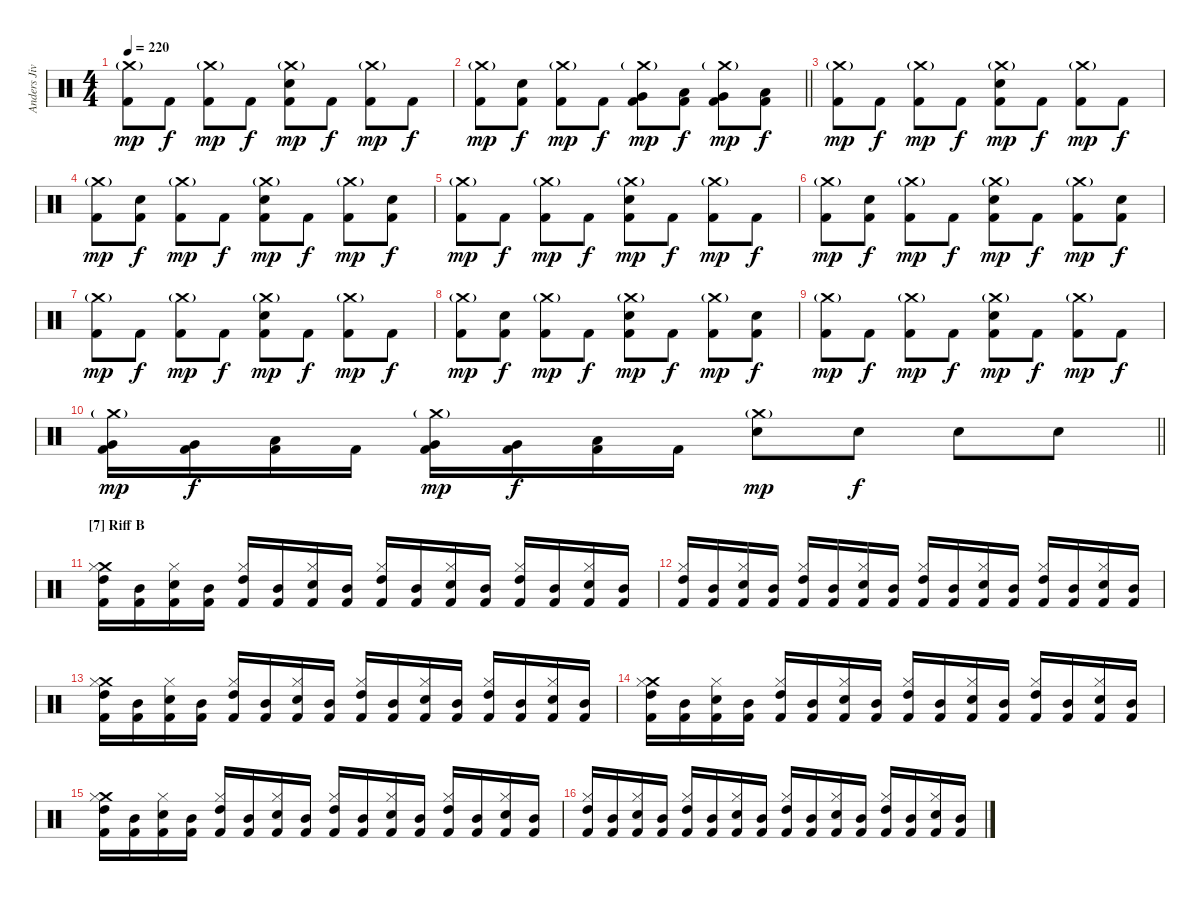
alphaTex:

\track ("Anders Jivarp" "Anders Jiv") {instrument percussion}
\staff {score}
\articulation defaults
\ts (4 4)
\tempo 220
\clef neutral
\ks c
("Crash medium (hit)"{g} "Kick (hit) 2").8{dy mp} "Kick (hit) 2".8{dy f} ("Crash medium (hit)"{g} "Kick (hit) 2").8{dy mp} "Kick (hit) 2".8{dy f} ("Crash medium (hit)"{g} "Snare (hit) 2" "Kick (hit) 2").8{dy mp} "Kick (hit) 2".8{dy f} ("Crash medium (hit)"{g} "Kick (hit) 2").8{dy mp} "Kick (hit) 2".8{dy f} |
\barLineRight lightlight
("Crash medium (hit)"{g} "Kick (hit) 2").8{dy mp} ("Snare (hit) 2" "Kick (hit) 2").8{dy f} ("Crash medium (hit)"{g} "Kick (hit) 2").8{dy mp} "Kick (hit) 2".8{dy f} ("Crash medium (hit)"{g} "Very Low Tom (hit)" "Kick (hit) 2").8{dy mp} ("Low Floor Tom (hit)" "Kick (hit) 2").8{dy f} ("Crash medium (hit)"{g} "Very Low Tom (hit)" "Kick (hit) 2").8{dy mp} ("Low Tom (hit)" "Kick (hit) 2").8{dy f} |
("Crash medium (hit)"{g} "Kick (hit) 2").8{dy mp} "Kick (hit) 2".8{dy f} ("Crash medium (hit)"{g} "Kick (hit) 2").8{dy mp} "Kick (hit) 2".8{dy f} ("Crash medium (hit)"{g} "Snare (hit) 2" "Kick (hit) 2").8{dy mp} "Kick (hit) 2".8{dy f} ("Crash medium (hit)"{g} "Kick (hit) 2").8{dy mp} "Kick (hit) 2".8{dy f} |
("Crash medium (hit)"{g} "Kick (hit) 2").8{dy mp} ("Snare (hit) 2" "Kick (hit) 2").8{dy f} ("Crash medium (hit)"{g} "Kick (hit) 2").8{dy mp} "Kick (hit) 2".8{dy f} ("Crash medium (hit)"{g} "Snare (hit) 2" "Kick (hit) 2").8{dy mp} "Kick (hit) 2".8{dy f} ("Crash medium (hit)"{g} "Kick (hit) 2").8{dy mp} ("Snare (hit) 2" "Kick (hit) 2").8{dy f} |
("Crash medium (hit)"{g} "Kick (hit) 2").8{dy mp} "Kick (hit) 2".8{dy f} ("Crash medium (hit)"{g} "Kick (hit) 2").8{dy mp} "Kick (hit) 2".8{dy f} ("Crash medium (hit)"{g} "Snare (hit) 2" "Kick (hit) 2").8{dy mp} "Kick (hit) 2".8{dy f} ("Crash medium (hit)"{g} "Kick (hit) 2").8{dy mp} "Kick (hit) 2".8{dy f} |
("Crash medium (hit)"{g} "Kick (hit) 2").8{dy mp} ("Snare (hit) 2" "Kick (hit) 2").8{dy f} ("Crash medium (hit)"{g} "Kick (hit) 2").8{dy mp} "Kick (hit) 2".8{dy f} ("Crash medium (hit)"{g} "Snare (hit) 2" "Kick (hit) 2").8{dy mp} "Kick (hit) 2".8{dy f} ("Crash medium (hit)"{g} "Kick (hit) 2").8{dy mp} ("Snare (hit) 2" "Kick (hit) 2").8{dy f} |
("Crash medium (hit)"{g} "Kick (hit) 2").8{dy mp} "Kick (hit) 2".8{dy f} ("Crash medium (hit)"{g} "Kick (hit) 2").8{dy mp} "Kick (hit) 2".8{dy f} ("Crash medium (hit)"{g} "Snare (hit) 2" "Kick (hit) 2").8{dy mp} "Kick (hit) 2".8{dy f} ("Crash medium (hit)"{g} "Kick (hit) 2").8{dy mp} "Kick (hit) 2".8{dy f} |
("Crash medium (hit)"{g} "Kick (hit) 2").8{dy mp} ("Snare (hit) 2" "Kick (hit) 2").8{dy f} ("Crash medium (hit)"{g} "Kick (hit) 2").8{dy mp} "Kick (hit) 2".8{dy f} ("Crash medium (hit)"{g} "Snare (hit) 2" "Kick (hit) 2").8{dy mp} "Kick (hit) 2".8{dy f} ("Crash medium (hit)"{g} "Kick (hit) 2").8{dy mp} ("Snare (hit) 2" "Kick (hit) 2").8{dy f} |
("Crash medium (hit)"{g} "Kick (hit) 2").8{dy mp} "Kick (hit) 2".8{dy f} ("Crash medium (hit)"{g} "Kick (hit) 2").8{dy mp} "Kick (hit) 2".8{dy f} ("Crash medium (hit)"{g} "Snare (hit) 2" "Kick (hit) 2").8{dy mp} "Kick (hit) 2".8{dy f} ("Crash medium (hit)"{g} "Kick (hit) 2").8{dy mp} "Kick (hit) 2".8{dy f} |
\barLineRight lightlight
("Crash medium (hit)"{g} "Very Low Tom (hit)" "Kick (hit) 2").16{dy mp} ("Very Low Tom (hit)" "Kick (hit) 2").16{dy f} ("Low Floor Tom (hit)" "Kick (hit) 2").16 "Kick (hit) 2".16 ("Crash medium (hit)"{g} "Very Low Tom (hit)" "Kick (hit) 2").16{dy mp} ("Very Low Tom (hit)" "Kick (hit) 2").16{dy f} ("Low Floor Tom (hit)" "Kick (hit) 2").16 "Kick (hit) 2".16 ("Crash medium (hit)"{g} "Snare (hit) 2").8{dy mp} "Snare (hit) 2".8{dy f} "Snare (hit) 2".8 "Snare (hit) 2".8 |
\section ("" "[7] Riff B")
("Crash medium (hit)" "Hi-Hat (closed)" "High Tom (hit)" "Kick (hit) 2").16 ("Mid Tom (hit)" "Kick (hit) 2").16 ("Hi-Hat (closed)" "Electric Snare (hit)" "Kick (hit) 2").16 ("Mid Tom (hit)" "Kick (hit) 2").16 ("Hi-Hat (closed)" "High Tom (hit)" "Kick (hit) 2").16 ("Mid Tom (hit)" "Kick (hit) 2").16 ("Hi-Hat (closed)" "Electric Snare (hit)" "Kick (hit) 2").16 ("Mid Tom (hit)" "Kick (hit) 2").16 ("Hi-Hat (closed)" "High Tom (hit)" "Kick (hit) 2").16 ("Mid Tom (hit)" "Kick (hit) 2").16 ("Hi-Hat (closed)" "Electric Snare (hit)" "Kick (hit) 2").16 ("Mid Tom (hit)" "Kick (hit) 2").16 ("Hi-Hat (closed)" "High Tom (hit)" "Kick (hit) 2").16 ("Mid Tom (hit)" "Kick (hit) 2").16 ("Hi-Hat (closed)" "Electric Snare (hit)" "Kick (hit) 2").16 ("Mid Tom (hit)" "Kick (hit) 2").16 |
("Hi-Hat (closed)" "High Tom (hit)" "Kick (hit) 2").16 ("Mid Tom (hit)" "Kick (hit) 2").16 ("Hi-Hat (closed)" "Electric Snare (hit)" "Kick (hit) 2").16 ("Mid Tom (hit)" "Kick (hit) 2").16 ("Hi-Hat (closed)" "High Tom (hit)" "Kick (hit) 2").16 ("Mid Tom (hit)" "Kick (hit) 2").16 ("Hi-Hat (closed)" "Electric Snare (hit)" "Kick (hit) 2").16 ("Mid Tom (hit)" "Kick (hit) 2").16 ("Hi-Hat (closed)" "High Tom (hit)" "Kick (hit) 2").16 ("Mid Tom (hit)" "Kick (hit) 2").16 ("Hi-Hat (closed)" "Electric Snare (hit)" "Kick (hit) 2").16 ("Mid Tom (hit)" "Kick (hit) 2").16 ("Hi-Hat (closed)" "High Tom (hit)" "Kick (hit) 2").16 ("Mid Tom (hit)" "Kick (hit) 2").16 ("Hi-Hat (closed)" "Electric Snare (hit)" "Kick (hit) 2").16 ("Mid Tom (hit)" "Kick (hit) 2").16 |
("Crash medium (hit)" "Hi-Hat (closed)" "High Tom (hit)" "Kick (hit) 2").16 ("Mid Tom (hit)" "Kick (hit) 2").16 ("Hi-Hat (closed)" "Electric Snare (hit)" "Kick (hit) 2").16 ("Mid Tom (hit)" "Kick (hit) 2").16 ("Hi-Hat (closed)" "High Tom (hit)" "Kick (hit) 2").16 ("Mid Tom (hit)" "Kick (hit) 2").16 ("Hi-Hat (closed)" "Electric Snare (hit)" "Kick (hit) 2").16 ("Mid Tom (hit)" "Kick (hit) 2").16 ("Hi-Hat (closed)" "High Tom (hit)" "Kick (hit) 2").16 ("Mid Tom (hit)" "Kick (hit) 2").16 ("Hi-Hat (closed)" "Electric Snare (hit)" "Kick (hit) 2").16 ("Mid Tom (hit)" "Kick (hit) 2").16 ("Hi-Hat (closed)" "High Tom (hit)" "Kick (hit) 2").16 ("Mid Tom (hit)" "Kick (hit) 2").16 ("Hi-Hat (closed)" "Electric Snare (hit)" "Kick (hit) 2").16 ("Mid Tom (hit)" "Kick (hit) 2").16 |
("Crash medium (hit)" "Hi-Hat (closed)" "High Tom (hit)" "Kick (hit) 2").16 ("Mid Tom (hit)" "Kick (hit) 2").16 ("Hi-Hat (closed)" "Electric Snare (hit)" "Kick (hit) 2").16 ("Mid Tom (hit)" "Kick (hit) 2").16 ("Hi-Hat (closed)" "High Tom (hit)" "Kick (hit) 2").16 ("Mid Tom (hit)" "Kick (hit) 2").16 ("Hi-Hat (closed)" "Electric Snare (hit)" "Kick (hit) 2").16 ("Mid Tom (hit)" "Kick (hit) 2").16 ("Hi-Hat (closed)" "High Tom (hit)" "Kick (hit) 2").16 ("Mid Tom (hit)" "Kick (hit) 2").16 ("Hi-Hat (closed)" "Electric Snare (hit)" "Kick (hit) 2").16 ("Mid Tom (hit)" "Kick (hit) 2").16 ("Hi-Hat (closed)" "High Tom (hit)" "Kick (hit) 2").16 ("Mid Tom (hit)" "Kick (hit) 2").16 ("Hi-Hat (closed)" "Electric Snare (hit)" "Kick (hit) 2").16 ("Mid Tom (hit)" "Kick (hit) 2").16 |
("Crash medium (hit)" "Hi-Hat (closed)" "High Tom (hit)" "Kick (hit) 2").16 ("Mid Tom (hit)" "Kick (hit) 2").16 ("Hi-Hat (closed)" "Electric Snare (hit)" "Kick (hit) 2").16 ("Mid Tom (hit)" "Kick (hit) 2").16 ("Hi-Hat (closed)" "High Tom (hit)" "Kick (hit) 2").16 ("Mid Tom (hit)" "Kick (hit) 2").16 ("Hi-Hat (closed)" "Electric Snare (hit)" "Kick (hit) 2").16 ("Mid Tom (hit)" "Kick (hit) 2").16 ("Hi-Hat (closed)" "High Tom (hit)" "Kick (hit) 2").16 ("Mid Tom (hit)" "Kick (hit) 2").16 ("Hi-Hat (closed)" "Electric Snare (hit)" "Kick (hit) 2").16 ("Mid Tom (hit)" "Kick (hit) 2").16 ("Hi-Hat (closed)" "High Tom (hit)" "Kick (hit) 2").16 ("Mid Tom (hit)" "Kick (hit) 2").16 ("Hi-Hat (closed)" "Electric Snare (hit)" "Kick (hit) 2").16 ("Mid Tom (hit)" "Kick (hit) 2").16 |
("Hi-Hat (closed)" "High Tom (hit)" "Kick (hit) 2").16 ("Mid Tom (hit)" "Kick (hit) 2").16 ("Hi-Hat (closed)" "Electric Snare (hit)" "Kick (hit) 2").16 ("Mid Tom (hit)" "Kick (hit) 2").16 ("Hi-Hat (closed)" "High Tom (hit)" "Kick (hit) 2").16 ("Mid Tom (hit)" "Kick (hit) 2").16 ("Hi-Hat (closed)" "Electric Snare (hit)" "Kick (hit) 2").16 ("Mid Tom (hit)" "Kick (hit) 2").16 ("Hi-Hat (closed)" "High Tom (hit)" "Kick (hit) 2").16 ("Mid Tom (hit)" "Kick (hit) 2").16 ("Hi-Hat (closed)" "Electric Snare (hit)" "Kick (hit) 2").16 ("Mid Tom (hit)" "Kick (hit) 2").16 ("Hi-Hat (closed)" "High Tom (hit)" "Kick (hit) 2").16 ("Mid Tom (hit)" "Kick (hit) 2").16 ("Hi-Hat (closed)" "Electric Snare (hit)" "Kick (hit) 2").16 ("Mid Tom (hit)" "Kick (hit) 2").16
